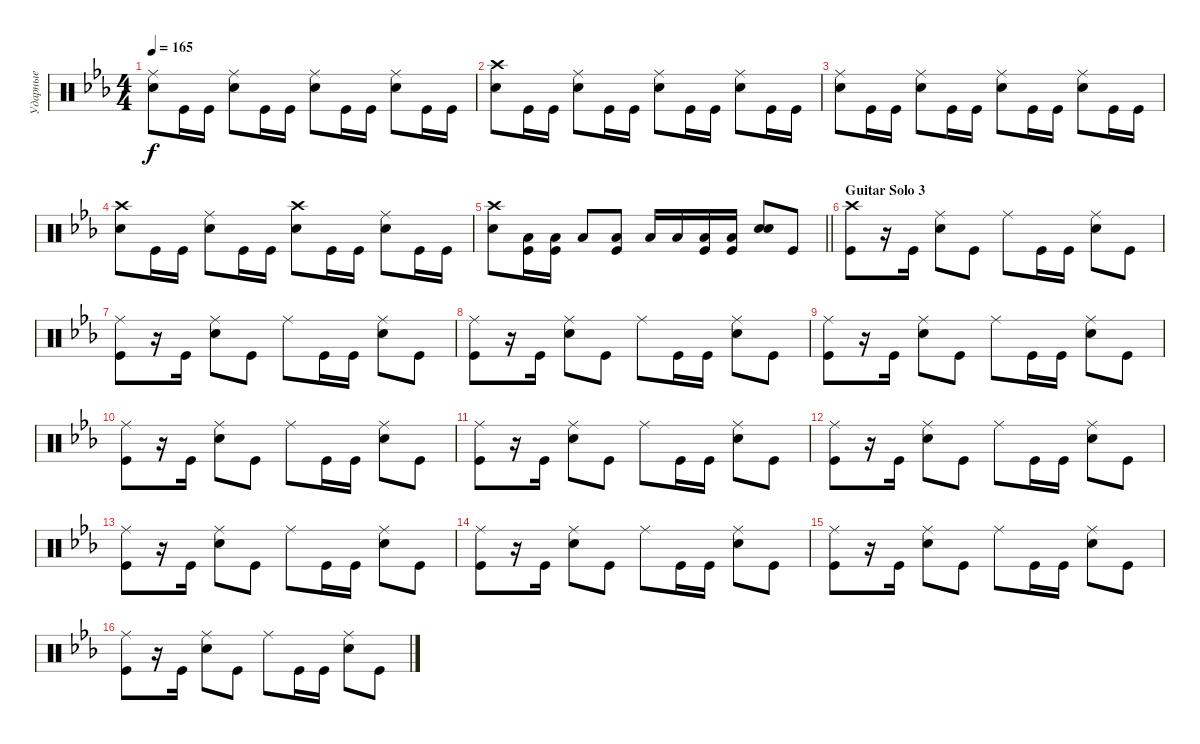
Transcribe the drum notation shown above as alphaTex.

\track ("Ударные" "Ударные") {instrument percussion}
\staff {score}
\articulation defaults
\ts (4 4)
\tempo 165
\clef neutral
\ks cminor
("Snare (hit) 2" "Ride (middle)").8{dy f} "Kick (hit)".16 "Kick (hit)".16 ("Snare (hit) 2" "Ride (middle)").8 "Kick (hit)".16 "Kick (hit)".16 ("Snare (hit) 2" "Ride (middle)").8 "Kick (hit)".16 "Kick (hit)".16 ("Snare (hit) 2" "Ride (middle)").8 "Kick (hit)".16 "Kick (hit)".16 |
("Snare (hit) 2" "Crash high (hit)").8 "Kick (hit)".16 "Kick (hit)".16 ("Snare (hit) 2" "Ride (middle)").8 "Kick (hit)".16 "Kick (hit)".16 ("Snare (hit) 2" "Ride (middle)").8 "Kick (hit)".16 "Kick (hit)".16 ("Snare (hit) 2" "Ride (middle)").8 "Kick (hit)".16 "Kick (hit)".16 |
("Snare (hit) 2" "Ride (middle)").8 "Kick (hit)".16 "Kick (hit)".16 ("Snare (hit) 2" "Ride (middle)").8 "Kick (hit)".16 "Kick (hit)".16 ("Snare (hit) 2" "Ride (middle)").8 "Kick (hit)".16 "Kick (hit)".16 ("Snare (hit) 2" "Ride (middle)").8 "Kick (hit)".16 "Kick (hit)".16 |
("Snare (hit) 2" "Crash high (hit)").8 "Kick (hit)".16 "Kick (hit)".16 ("Snare (hit) 2" "Ride (middle)").8 "Kick (hit)".16 "Kick (hit)".16 ("Snare (hit) 2" "Crash high (hit)").8 "Kick (hit)".16 "Kick (hit)".16 ("Snare (hit) 2" "Ride (middle)").8 "Kick (hit)".16 "Kick (hit)".16 |
\barLineRight lightlight
("Snare (hit) 2" "Crash high (hit)").8 ("Kick (hit)" "Low Tom (hit)").16 ("Kick (hit)" "Low Tom (hit)").16 "Low Tom (hit)".8 ("Kick (hit)" "Low Tom (hit)").8 "Low Tom (hit)".16 "Low Tom (hit)".16 ("Kick (hit)" "Low Tom (hit)").16 ("Kick (hit)" "Low Tom (hit)").16 ("Snare (hit) 2" "Snare (hit) 2").8{bd 240} "Kick (hit)".8 |
\section ("" "Guitar Solo 3")
("Kick (hit)" "Crash high (hit)").8 r.16 "Kick (hit)".16 ("Snare (hit) 2" "Ride (middle)").8 "Kick (hit)".8 "Ride (middle)".8 "Kick (hit)".16 "Kick (hit)".16 ("Snare (hit) 2" "Ride (middle)").8 "Kick (hit)".8 |
("Kick (hit)" "Ride (middle)").8 r.16 "Kick (hit)".16 ("Snare (hit) 2" "Ride (middle)").8 "Kick (hit)".8 "Ride (middle)".8 "Kick (hit)".16 "Kick (hit)".16 ("Snare (hit) 2" "Ride (middle)").8 "Kick (hit)".8 |
("Kick (hit)" "Ride (middle)").8 r.16 "Kick (hit)".16 ("Snare (hit) 2" "Ride (middle)").8 "Kick (hit)".8 "Ride (middle)".8 "Kick (hit)".16 "Kick (hit)".16 ("Snare (hit) 2" "Ride (middle)").8 "Kick (hit)".8 |
("Kick (hit)" "Ride (middle)").8 r.16 "Kick (hit)".16 ("Snare (hit) 2" "Ride (middle)").8 "Kick (hit)".8 "Ride (middle)".8 "Kick (hit)".16 "Kick (hit)".16 ("Snare (hit) 2" "Ride (middle)").8 "Kick (hit)".8 |
("Kick (hit)" "Ride (middle)").8 r.16 "Kick (hit)".16 ("Snare (hit) 2" "Ride (middle)").8 "Kick (hit)".8 "Ride (middle)".8 "Kick (hit)".16 "Kick (hit)".16 ("Snare (hit) 2" "Ride (middle)").8 "Kick (hit)".8 |
("Kick (hit)" "Ride (middle)").8 r.16 "Kick (hit)".16 ("Snare (hit) 2" "Ride (middle)").8 "Kick (hit)".8 "Ride (middle)".8 "Kick (hit)".16 "Kick (hit)".16 ("Snare (hit) 2" "Ride (middle)").8 "Kick (hit)".8 |
("Kick (hit)" "Ride (middle)").8 r.16 "Kick (hit)".16 ("Snare (hit) 2" "Ride (middle)").8 "Kick (hit)".8 "Ride (middle)".8 "Kick (hit)".16 "Kick (hit)".16 ("Snare (hit) 2" "Ride (middle)").8 "Kick (hit)".8 |
("Kick (hit)" "Ride (middle)").8 r.16 "Kick (hit)".16 ("Snare (hit) 2" "Ride (middle)").8 "Kick (hit)".8 "Ride (middle)".8 "Kick (hit)".16 "Kick (hit)".16 ("Snare (hit) 2" "Ride (middle)").8 "Kick (hit)".8 |
("Kick (hit)" "Ride (middle)").8 r.16 "Kick (hit)".16 ("Snare (hit) 2" "Ride (middle)").8 "Kick (hit)".8 "Ride (middle)".8 "Kick (hit)".16 "Kick (hit)".16 ("Snare (hit) 2" "Ride (middle)").8 "Kick (hit)".8 |
("Kick (hit)" "Ride (middle)").8 r.16 "Kick (hit)".16 ("Snare (hit) 2" "Ride (middle)").8 "Kick (hit)".8 "Ride (middle)".8 "Kick (hit)".16 "Kick (hit)".16 ("Snare (hit) 2" "Ride (middle)").8 "Kick (hit)".8 |
("Kick (hit)" "Ride (middle)").8 r.16 "Kick (hit)".16 ("Snare (hit) 2" "Ride (middle)").8 "Kick (hit)".8 "Ride (middle)".8 "Kick (hit)".16 "Kick (hit)".16 ("Snare (hit) 2" "Ride (middle)").8 "Kick (hit)".8
